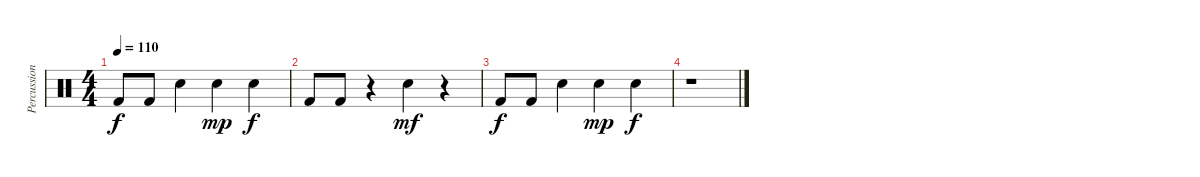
\track ("Percussions" "Percussion") {instrument percussion}
\staff {score}
\articulation defaults
\ts (4 4)
\tempo 110
\clef neutral
\ks c "Kick (hit) 2".8{dy f} "Kick (hit) 2".8 "Snare (hit) 2".4 "Snare (hit) 2".4{dy mp} "Snare (hit) 2".4{dy f}
|
"Kick (hit) 2".8 "Kick (hit) 2".8 r.4 "Snare (hit) 2".4{dy mf} r.4 |
"Kick (hit) 2".8{dy f} "Kick (hit) 2".8 "Snare (hit) 2".4 "Snare (hit) 2".4{dy mp} "Snare (hit) 2".4{dy f} |
r.1
